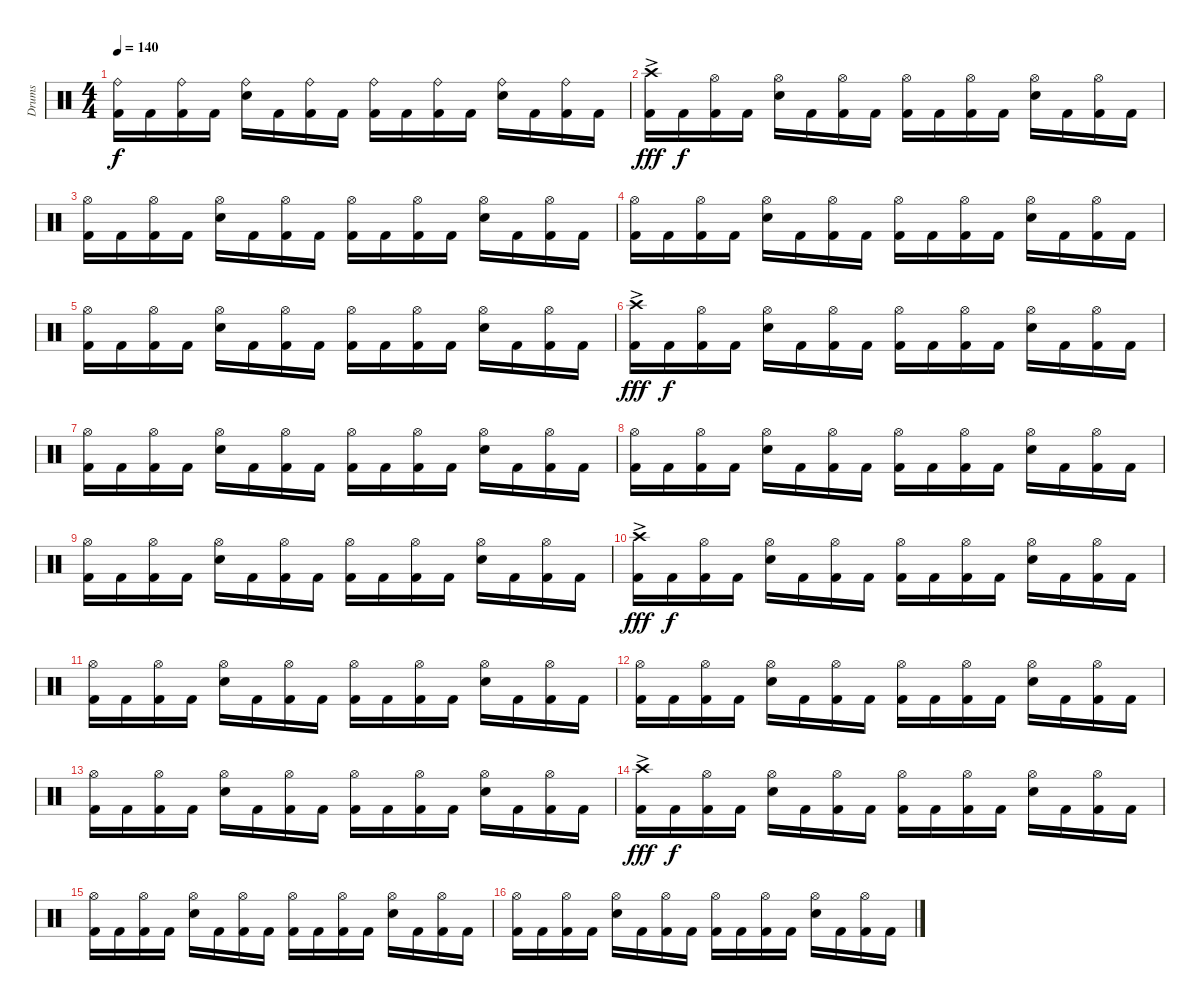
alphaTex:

\track ("Drums" "Drums") {instrument percussion}
\staff {score}
\articulation defaults
\ts (4 4)
\tempo 140
\clef neutral
\ks c
("Ride (bell)" "Kick (hit) 2").16{dy f} "Kick (hit) 2".16 ("Ride (bell)" "Kick (hit) 2").16 "Kick (hit) 2".16 ("Ride (bell)" "Snare (hit) 2").16 "Kick (hit) 2".16 ("Ride (bell)" "Kick (hit) 2").16 "Kick (hit) 2".16 ("Ride (bell)" "Kick (hit) 2").16 "Kick (hit) 2".16 ("Ride (bell)" "Kick (hit) 2").16 "Kick (hit) 2".16 ("Ride (bell)" "Snare (hit) 2").16 "Kick (hit) 2".16 ("Ride (bell)" "Kick (hit) 2").16 "Kick (hit) 2".16 |
("Crash high (hit)"{ac} "Kick (hit) 2").16{dy fff} "Kick (hit) 2".16{dy f} ("Hi-Hat (open)" "Kick (hit) 2").16 "Kick (hit) 2".16 ("Hi-Hat (open)" "Snare (hit) 2").16 "Kick (hit) 2".16 ("Hi-Hat (open)" "Kick (hit) 2").16 "Kick (hit) 2".16 ("Hi-Hat (open)" "Kick (hit) 2").16 "Kick (hit) 2".16 ("Hi-Hat (open)" "Kick (hit) 2").16 "Kick (hit) 2".16 ("Hi-Hat (open)" "Snare (hit) 2").16 "Kick (hit) 2".16 ("Hi-Hat (open)" "Kick (hit) 2").16 "Kick (hit) 2".16 |
("Hi-Hat (open)" "Kick (hit) 2").16 "Kick (hit) 2".16 ("Hi-Hat (open)" "Kick (hit) 2").16 "Kick (hit) 2".16 ("Hi-Hat (open)" "Snare (hit) 2").16 "Kick (hit) 2".16 ("Hi-Hat (open)" "Kick (hit) 2").16 "Kick (hit) 2".16 ("Hi-Hat (open)" "Kick (hit) 2").16 "Kick (hit) 2".16 ("Hi-Hat (open)" "Kick (hit) 2").16 "Kick (hit) 2".16 ("Hi-Hat (open)" "Snare (hit) 2").16 "Kick (hit) 2".16 ("Hi-Hat (open)" "Kick (hit) 2").16 "Kick (hit) 2".16 |
("Hi-Hat (open)" "Kick (hit) 2").16 "Kick (hit) 2".16 ("Hi-Hat (open)" "Kick (hit) 2").16 "Kick (hit) 2".16 ("Hi-Hat (open)" "Snare (hit) 2").16 "Kick (hit) 2".16 ("Hi-Hat (open)" "Kick (hit) 2").16 "Kick (hit) 2".16 ("Hi-Hat (open)" "Kick (hit) 2").16 "Kick (hit) 2".16 ("Hi-Hat (open)" "Kick (hit) 2").16 "Kick (hit) 2".16 ("Hi-Hat (open)" "Snare (hit) 2").16 "Kick (hit) 2".16 ("Hi-Hat (open)" "Kick (hit) 2").16 "Kick (hit) 2".16 |
("Hi-Hat (open)" "Kick (hit) 2").16 "Kick (hit) 2".16 ("Hi-Hat (open)" "Kick (hit) 2").16 "Kick (hit) 2".16 ("Hi-Hat (open)" "Snare (hit) 2").16 "Kick (hit) 2".16 ("Hi-Hat (open)" "Kick (hit) 2").16 "Kick (hit) 2".16 ("Hi-Hat (open)" "Kick (hit) 2").16 "Kick (hit) 2".16 ("Hi-Hat (open)" "Kick (hit) 2").16 "Kick (hit) 2".16 ("Hi-Hat (open)" "Snare (hit) 2").16 "Kick (hit) 2".16 ("Hi-Hat (open)" "Kick (hit) 2").16 "Kick (hit) 2".16 |
("Crash high (hit)"{ac} "Kick (hit) 2").16{dy fff} "Kick (hit) 2".16{dy f} ("Hi-Hat (open)" "Kick (hit) 2").16 "Kick (hit) 2".16 ("Hi-Hat (open)" "Snare (hit) 2").16 "Kick (hit) 2".16 ("Hi-Hat (open)" "Kick (hit) 2").16 "Kick (hit) 2".16 ("Hi-Hat (open)" "Kick (hit) 2").16 "Kick (hit) 2".16 ("Hi-Hat (open)" "Kick (hit) 2").16 "Kick (hit) 2".16 ("Hi-Hat (open)" "Snare (hit) 2").16 "Kick (hit) 2".16 ("Hi-Hat (open)" "Kick (hit) 2").16 "Kick (hit) 2".16 |
("Hi-Hat (open)" "Kick (hit) 2").16 "Kick (hit) 2".16 ("Hi-Hat (open)" "Kick (hit) 2").16 "Kick (hit) 2".16 ("Hi-Hat (open)" "Snare (hit) 2").16 "Kick (hit) 2".16 ("Hi-Hat (open)" "Kick (hit) 2").16 "Kick (hit) 2".16 ("Hi-Hat (open)" "Kick (hit) 2").16 "Kick (hit) 2".16 ("Hi-Hat (open)" "Kick (hit) 2").16 "Kick (hit) 2".16 ("Hi-Hat (open)" "Snare (hit) 2").16 "Kick (hit) 2".16 ("Hi-Hat (open)" "Kick (hit) 2").16 "Kick (hit) 2".16 |
("Hi-Hat (open)" "Kick (hit) 2").16 "Kick (hit) 2".16 ("Hi-Hat (open)" "Kick (hit) 2").16 "Kick (hit) 2".16 ("Hi-Hat (open)" "Snare (hit) 2").16 "Kick (hit) 2".16 ("Hi-Hat (open)" "Kick (hit) 2").16 "Kick (hit) 2".16 ("Hi-Hat (open)" "Kick (hit) 2").16 "Kick (hit) 2".16 ("Hi-Hat (open)" "Kick (hit) 2").16 "Kick (hit) 2".16 ("Hi-Hat (open)" "Snare (hit) 2").16 "Kick (hit) 2".16 ("Hi-Hat (open)" "Kick (hit) 2").16 "Kick (hit) 2".16 |
("Hi-Hat (open)" "Kick (hit) 2").16 "Kick (hit) 2".16 ("Hi-Hat (open)" "Kick (hit) 2").16 "Kick (hit) 2".16 ("Hi-Hat (open)" "Snare (hit) 2").16 "Kick (hit) 2".16 ("Hi-Hat (open)" "Kick (hit) 2").16 "Kick (hit) 2".16 ("Hi-Hat (open)" "Kick (hit) 2").16 "Kick (hit) 2".16 ("Hi-Hat (open)" "Kick (hit) 2").16 "Kick (hit) 2".16 ("Hi-Hat (open)" "Snare (hit) 2").16 "Kick (hit) 2".16 ("Hi-Hat (open)" "Kick (hit) 2").16 "Kick (hit) 2".16 |
("Crash high (hit)"{ac} "Kick (hit) 2").16{dy fff} "Kick (hit) 2".16{dy f} ("Hi-Hat (open)" "Kick (hit) 2").16 "Kick (hit) 2".16 ("Hi-Hat (open)" "Snare (hit) 2").16 "Kick (hit) 2".16 ("Hi-Hat (open)" "Kick (hit) 2").16 "Kick (hit) 2".16 ("Hi-Hat (open)" "Kick (hit) 2").16 "Kick (hit) 2".16 ("Hi-Hat (open)" "Kick (hit) 2").16 "Kick (hit) 2".16 ("Hi-Hat (open)" "Snare (hit) 2").16 "Kick (hit) 2".16 ("Hi-Hat (open)" "Kick (hit) 2").16 "Kick (hit) 2".16 |
("Hi-Hat (open)" "Kick (hit) 2").16 "Kick (hit) 2".16 ("Hi-Hat (open)" "Kick (hit) 2").16 "Kick (hit) 2".16 ("Hi-Hat (open)" "Snare (hit) 2").16 "Kick (hit) 2".16 ("Hi-Hat (open)" "Kick (hit) 2").16 "Kick (hit) 2".16 ("Hi-Hat (open)" "Kick (hit) 2").16 "Kick (hit) 2".16 ("Hi-Hat (open)" "Kick (hit) 2").16 "Kick (hit) 2".16 ("Hi-Hat (open)" "Snare (hit) 2").16 "Kick (hit) 2".16 ("Hi-Hat (open)" "Kick (hit) 2").16 "Kick (hit) 2".16 |
("Hi-Hat (open)" "Kick (hit) 2").16 "Kick (hit) 2".16 ("Hi-Hat (open)" "Kick (hit) 2").16 "Kick (hit) 2".16 ("Hi-Hat (open)" "Snare (hit) 2").16 "Kick (hit) 2".16 ("Hi-Hat (open)" "Kick (hit) 2").16 "Kick (hit) 2".16 ("Hi-Hat (open)" "Kick (hit) 2").16 "Kick (hit) 2".16 ("Hi-Hat (open)" "Kick (hit) 2").16 "Kick (hit) 2".16 ("Hi-Hat (open)" "Snare (hit) 2").16 "Kick (hit) 2".16 ("Hi-Hat (open)" "Kick (hit) 2").16 "Kick (hit) 2".16 |
("Hi-Hat (open)" "Kick (hit) 2").16 "Kick (hit) 2".16 ("Hi-Hat (open)" "Kick (hit) 2").16 "Kick (hit) 2".16 ("Hi-Hat (open)" "Snare (hit) 2").16 "Kick (hit) 2".16 ("Hi-Hat (open)" "Kick (hit) 2").16 "Kick (hit) 2".16 ("Hi-Hat (open)" "Kick (hit) 2").16 "Kick (hit) 2".16 ("Hi-Hat (open)" "Kick (hit) 2").16 "Kick (hit) 2".16 ("Hi-Hat (open)" "Snare (hit) 2").16 "Kick (hit) 2".16 ("Hi-Hat (open)" "Kick (hit) 2").16 "Kick (hit) 2".16 |
("Crash high (hit)"{ac} "Kick (hit) 2").16{dy fff} "Kick (hit) 2".16{dy f} ("Hi-Hat (open)" "Kick (hit) 2").16 "Kick (hit) 2".16 ("Hi-Hat (open)" "Snare (hit) 2").16 "Kick (hit) 2".16 ("Hi-Hat (open)" "Kick (hit) 2").16 "Kick (hit) 2".16 ("Hi-Hat (open)" "Kick (hit) 2").16 "Kick (hit) 2".16 ("Hi-Hat (open)" "Kick (hit) 2").16 "Kick (hit) 2".16 ("Hi-Hat (open)" "Snare (hit) 2").16 "Kick (hit) 2".16 ("Hi-Hat (open)" "Kick (hit) 2").16 "Kick (hit) 2".16 |
("Hi-Hat (open)" "Kick (hit) 2").16 "Kick (hit) 2".16 ("Hi-Hat (open)" "Kick (hit) 2").16 "Kick (hit) 2".16 ("Hi-Hat (open)" "Snare (hit) 2").16 "Kick (hit) 2".16 ("Hi-Hat (open)" "Kick (hit) 2").16 "Kick (hit) 2".16 ("Hi-Hat (open)" "Kick (hit) 2").16 "Kick (hit) 2".16 ("Hi-Hat (open)" "Kick (hit) 2").16 "Kick (hit) 2".16 ("Hi-Hat (open)" "Snare (hit) 2").16 "Kick (hit) 2".16 ("Hi-Hat (open)" "Kick (hit) 2").16 "Kick (hit) 2".16 |
("Hi-Hat (open)" "Kick (hit) 2").16 "Kick (hit) 2".16 ("Hi-Hat (open)" "Kick (hit) 2").16 "Kick (hit) 2".16 ("Hi-Hat (open)" "Snare (hit) 2").16 "Kick (hit) 2".16 ("Hi-Hat (open)" "Kick (hit) 2").16 "Kick (hit) 2".16 ("Hi-Hat (open)" "Kick (hit) 2").16 "Kick (hit) 2".16 ("Hi-Hat (open)" "Kick (hit) 2").16 "Kick (hit) 2".16 ("Hi-Hat (open)" "Snare (hit) 2").16 "Kick (hit) 2".16 ("Hi-Hat (open)" "Kick (hit) 2").16 "Kick (hit) 2".16
